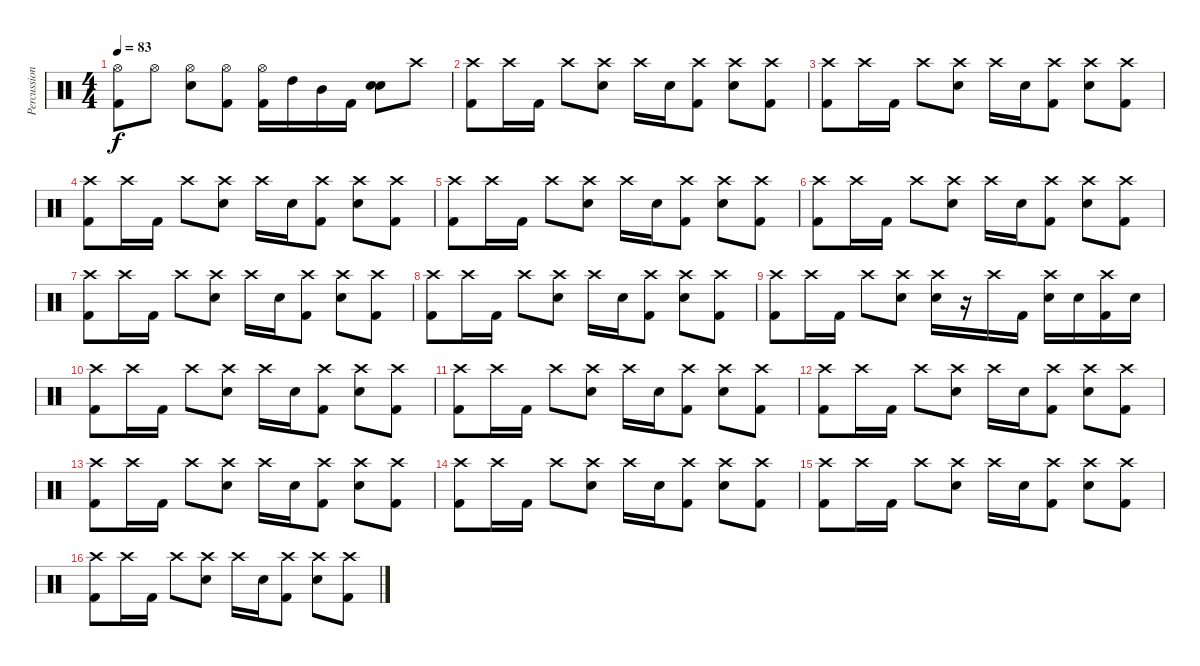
\track ("Percussions" "Percussion") {instrument percussion}
\staff {score}
\articulation defaults
\ts (4 4)
\tempo 83
\clef neutral
\ks c
("Hi-Hat (open)" "Kick (hit) 2").8{dy f} "Hi-Hat (open)".8 ("Hi-Hat (open)" "Electric Snare (hit)").8 ("Hi-Hat (open)" "Kick (hit) 2").8 ("Hi-Hat (open)" "Kick (hit) 2").16 "High Tom (hit)".16 "Mid Tom (hit)".16 "Kick (hit) 2".16 ("Electric Snare (hit)" "Electric Snare (hit)").8 "Crash high (hit)".8 |
("Crash high (hit)" "Kick (hit) 2").8 "Crash high (hit)".16 "Kick (hit) 2".16 "Crash high (hit)".8 ("Crash high (hit)" "Electric Snare (hit)").8 "Crash high (hit)".16 "Electric Snare (hit)".16 ("Crash high (hit)" "Kick (hit) 2").8 ("Crash high (hit)" "Electric Snare (hit)").8 ("Crash high (hit)" "Kick (hit) 2").8 |
("Crash high (hit)" "Kick (hit) 2").8 "Crash high (hit)".16 "Kick (hit) 2".16 "Crash high (hit)".8 ("Crash high (hit)" "Electric Snare (hit)").8 "Crash high (hit)".16 "Electric Snare (hit)".16 ("Crash high (hit)" "Kick (hit) 2").8 ("Crash high (hit)" "Electric Snare (hit)").8 ("Crash high (hit)" "Kick (hit) 2").8 |
("Crash high (hit)" "Kick (hit) 2").8 "Crash high (hit)".16 "Kick (hit) 2".16 "Crash high (hit)".8 ("Crash high (hit)" "Electric Snare (hit)").8 "Crash high (hit)".16 "Electric Snare (hit)".16 ("Crash high (hit)" "Kick (hit) 2").8 ("Crash high (hit)" "Electric Snare (hit)").8 ("Crash high (hit)" "Kick (hit) 2").8 |
("Crash high (hit)" "Kick (hit) 2").8 "Crash high (hit)".16 "Kick (hit) 2".16 "Crash high (hit)".8 ("Crash high (hit)" "Electric Snare (hit)").8 "Crash high (hit)".16 "Electric Snare (hit)".16 ("Crash high (hit)" "Kick (hit) 2").8 ("Crash high (hit)" "Electric Snare (hit)").8 ("Crash high (hit)" "Kick (hit) 2").8 |
("Crash high (hit)" "Kick (hit) 2").8 "Crash high (hit)".16 "Kick (hit) 2".16 "Crash high (hit)".8 ("Crash high (hit)" "Electric Snare (hit)").8 "Crash high (hit)".16 "Electric Snare (hit)".16 ("Crash high (hit)" "Kick (hit) 2").8 ("Crash high (hit)" "Electric Snare (hit)").8 ("Crash high (hit)" "Kick (hit) 2").8 |
("Crash high (hit)" "Kick (hit) 2").8 "Crash high (hit)".16 "Kick (hit) 2".16 "Crash high (hit)".8 ("Crash high (hit)" "Electric Snare (hit)").8 "Crash high (hit)".16 "Electric Snare (hit)".16 ("Crash high (hit)" "Kick (hit) 2").8 ("Crash high (hit)" "Electric Snare (hit)").8 ("Crash high (hit)" "Kick (hit) 2").8 |
("Crash high (hit)" "Kick (hit) 2").8 "Crash high (hit)".16 "Kick (hit) 2".16 "Crash high (hit)".8 ("Crash high (hit)" "Electric Snare (hit)").8 "Crash high (hit)".16 "Electric Snare (hit)".16 ("Crash high (hit)" "Kick (hit) 2").8 ("Crash high (hit)" "Electric Snare (hit)").8 ("Crash high (hit)" "Kick (hit) 2").8 |
("Crash high (hit)" "Kick (hit) 2").8 "Crash high (hit)".16 "Kick (hit) 2".16 "Crash high (hit)".8 ("Crash high (hit)" "Electric Snare (hit)").8 ("Crash high (hit)" "Electric Snare (hit)").16 r.16 "Crash high (hit)".16 "Kick (hit) 2".16 ("Crash high (hit)" "Electric Snare (hit)").16 "Electric Snare (hit)".16 ("Crash high (hit)" "Kick (hit) 2").16 "Electric Snare (hit)".16 |
("Crash high (hit)" "Kick (hit) 2").8 "Crash high (hit)".16 "Kick (hit) 2".16 "Crash high (hit)".8 ("Crash high (hit)" "Electric Snare (hit)").8 "Crash high (hit)".16 "Electric Snare (hit)".16 ("Crash high (hit)" "Kick (hit) 2").8 ("Crash high (hit)" "Electric Snare (hit)").8 ("Crash high (hit)" "Kick (hit) 2").8 |
("Crash high (hit)" "Kick (hit) 2").8 "Crash high (hit)".16 "Kick (hit) 2".16 "Crash high (hit)".8 ("Crash high (hit)" "Electric Snare (hit)").8 "Crash high (hit)".16 "Electric Snare (hit)".16 ("Crash high (hit)" "Kick (hit) 2").8 ("Crash high (hit)" "Electric Snare (hit)").8 ("Crash high (hit)" "Kick (hit) 2").8 |
("Crash high (hit)" "Kick (hit) 2").8 "Crash high (hit)".16 "Kick (hit) 2".16 "Crash high (hit)".8 ("Crash high (hit)" "Electric Snare (hit)").8 "Crash high (hit)".16 "Electric Snare (hit)".16 ("Crash high (hit)" "Kick (hit) 2").8 ("Crash high (hit)" "Electric Snare (hit)").8 ("Crash high (hit)" "Kick (hit) 2").8 |
("Crash high (hit)" "Kick (hit) 2").8 "Crash high (hit)".16 "Kick (hit) 2".16 "Crash high (hit)".8 ("Crash high (hit)" "Electric Snare (hit)").8 "Crash high (hit)".16 "Electric Snare (hit)".16 ("Crash high (hit)" "Kick (hit) 2").8 ("Crash high (hit)" "Electric Snare (hit)").8 ("Crash high (hit)" "Kick (hit) 2").8 |
("Crash high (hit)" "Kick (hit) 2").8 "Crash high (hit)".16 "Kick (hit) 2".16 "Crash high (hit)".8 ("Crash high (hit)" "Electric Snare (hit)").8 "Crash high (hit)".16 "Electric Snare (hit)".16 ("Crash high (hit)" "Kick (hit) 2").8 ("Crash high (hit)" "Electric Snare (hit)").8 ("Crash high (hit)" "Kick (hit) 2").8 |
("Crash high (hit)" "Kick (hit) 2").8 "Crash high (hit)".16 "Kick (hit) 2".16 "Crash high (hit)".8 ("Crash high (hit)" "Electric Snare (hit)").8 "Crash high (hit)".16 "Electric Snare (hit)".16 ("Crash high (hit)" "Kick (hit) 2").8 ("Crash high (hit)" "Electric Snare (hit)").8 ("Crash high (hit)" "Kick (hit) 2").8 |
("Crash high (hit)" "Kick (hit) 2").8 "Crash high (hit)".16 "Kick (hit) 2".16 "Crash high (hit)".8 ("Crash high (hit)" "Electric Snare (hit)").8 "Crash high (hit)".16 "Electric Snare (hit)".16 ("Crash high (hit)" "Kick (hit) 2").8 ("Crash high (hit)" "Electric Snare (hit)").8 ("Crash high (hit)" "Kick (hit) 2").8
